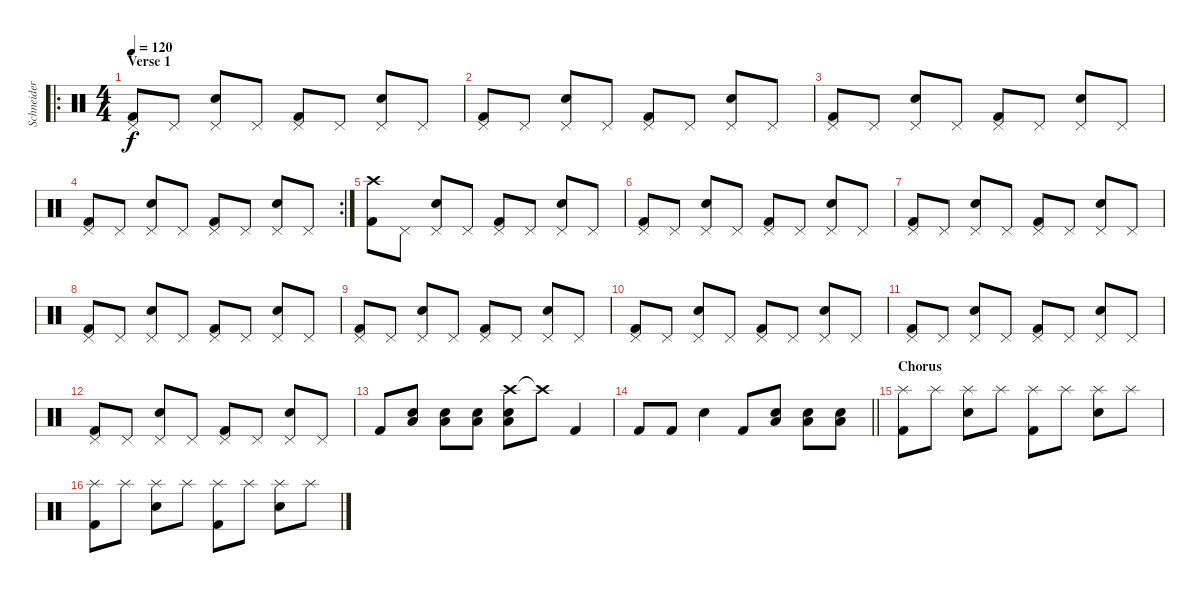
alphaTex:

\track ("Schneider" "Schneider") {instrument percussion}
\staff {score}
\articulation defaults
\ro
\ts (4 4)
\section ("" "Verse 1")
\tempo 120
\clef neutral
\ks c
("Pedal Hi-Hat (hit)" "Kick (hit) 2").8{dy f} "Pedal Hi-Hat (hit)".8 ("Pedal Hi-Hat (hit)" "Electric Snare (hit)").8 "Pedal Hi-Hat (hit)".8 ("Pedal Hi-Hat (hit)" "Kick (hit) 2").8 "Pedal Hi-Hat (hit)".8 ("Pedal Hi-Hat (hit)" "Electric Snare (hit)").8 "Pedal Hi-Hat (hit)".8 |
("Pedal Hi-Hat (hit)" "Kick (hit) 2").8 "Pedal Hi-Hat (hit)".8 ("Pedal Hi-Hat (hit)" "Electric Snare (hit)").8 "Pedal Hi-Hat (hit)".8 ("Pedal Hi-Hat (hit)" "Kick (hit) 2").8 "Pedal Hi-Hat (hit)".8 ("Pedal Hi-Hat (hit)" "Electric Snare (hit)").8 "Pedal Hi-Hat (hit)".8 |
("Pedal Hi-Hat (hit)" "Kick (hit) 2").8 "Pedal Hi-Hat (hit)".8 ("Pedal Hi-Hat (hit)" "Electric Snare (hit)").8 "Pedal Hi-Hat (hit)".8 ("Pedal Hi-Hat (hit)" "Kick (hit) 2").8 "Pedal Hi-Hat (hit)".8 ("Pedal Hi-Hat (hit)" "Electric Snare (hit)").8 "Pedal Hi-Hat (hit)".8 |
\rc 2
("Pedal Hi-Hat (hit)" "Kick (hit) 2").8 "Pedal Hi-Hat (hit)".8 ("Pedal Hi-Hat (hit)" "Electric Snare (hit)").8 "Pedal Hi-Hat (hit)".8 ("Pedal Hi-Hat (hit)" "Kick (hit) 2").8 "Pedal Hi-Hat (hit)".8 ("Pedal Hi-Hat (hit)" "Electric Snare (hit)").8 "Pedal Hi-Hat (hit)".8 |
("Crash high (hit)" "Kick (hit) 2").8 "Pedal Hi-Hat (hit)".8 ("Pedal Hi-Hat (hit)" "Electric Snare (hit)").8 "Pedal Hi-Hat (hit)".8 ("Pedal Hi-Hat (hit)" "Kick (hit) 2").8 "Pedal Hi-Hat (hit)".8 ("Pedal Hi-Hat (hit)" "Electric Snare (hit)").8 "Pedal Hi-Hat (hit)".8 |
("Pedal Hi-Hat (hit)" "Kick (hit) 2").8 "Pedal Hi-Hat (hit)".8 ("Pedal Hi-Hat (hit)" "Electric Snare (hit)").8 "Pedal Hi-Hat (hit)".8 ("Pedal Hi-Hat (hit)" "Kick (hit) 2").8 "Pedal Hi-Hat (hit)".8 ("Pedal Hi-Hat (hit)" "Electric Snare (hit)").8 "Pedal Hi-Hat (hit)".8 |
("Pedal Hi-Hat (hit)" "Kick (hit) 2").8 "Pedal Hi-Hat (hit)".8 ("Pedal Hi-Hat (hit)" "Electric Snare (hit)").8 "Pedal Hi-Hat (hit)".8 ("Pedal Hi-Hat (hit)" "Kick (hit) 2").8 "Pedal Hi-Hat (hit)".8 ("Pedal Hi-Hat (hit)" "Electric Snare (hit)").8 "Pedal Hi-Hat (hit)".8 |
("Pedal Hi-Hat (hit)" "Kick (hit) 2").8 "Pedal Hi-Hat (hit)".8 ("Pedal Hi-Hat (hit)" "Electric Snare (hit)").8 "Pedal Hi-Hat (hit)".8 ("Pedal Hi-Hat (hit)" "Kick (hit) 2").8 "Pedal Hi-Hat (hit)".8 ("Pedal Hi-Hat (hit)" "Electric Snare (hit)").8 "Pedal Hi-Hat (hit)".8 |
("Pedal Hi-Hat (hit)" "Kick (hit) 2").8 "Pedal Hi-Hat (hit)".8 ("Pedal Hi-Hat (hit)" "Electric Snare (hit)").8 "Pedal Hi-Hat (hit)".8 ("Pedal Hi-Hat (hit)" "Kick (hit) 2").8 "Pedal Hi-Hat (hit)".8 ("Pedal Hi-Hat (hit)" "Electric Snare (hit)").8 "Pedal Hi-Hat (hit)".8 |
("Pedal Hi-Hat (hit)" "Kick (hit) 2").8 "Pedal Hi-Hat (hit)".8 ("Pedal Hi-Hat (hit)" "Electric Snare (hit)").8 "Pedal Hi-Hat (hit)".8 ("Pedal Hi-Hat (hit)" "Kick (hit) 2").8 "Pedal Hi-Hat (hit)".8 ("Pedal Hi-Hat (hit)" "Electric Snare (hit)").8 "Pedal Hi-Hat (hit)".8 |
("Pedal Hi-Hat (hit)" "Kick (hit) 2").8 "Pedal Hi-Hat (hit)".8 ("Pedal Hi-Hat (hit)" "Electric Snare (hit)").8 "Pedal Hi-Hat (hit)".8 ("Pedal Hi-Hat (hit)" "Kick (hit) 2").8 "Pedal Hi-Hat (hit)".8 ("Pedal Hi-Hat (hit)" "Electric Snare (hit)").8 "Pedal Hi-Hat (hit)".8 |
("Pedal Hi-Hat (hit)" "Kick (hit) 2").8 "Pedal Hi-Hat (hit)".8 ("Pedal Hi-Hat (hit)" "Electric Snare (hit)").8 "Pedal Hi-Hat (hit)".8 ("Pedal Hi-Hat (hit)" "Kick (hit) 2").8 "Pedal Hi-Hat (hit)".8 ("Pedal Hi-Hat (hit)" "Electric Snare (hit)").8 "Pedal Hi-Hat (hit)".8 |
"Kick (hit) 2".8 ("Low Floor Tom (hit)" "Electric Snare (hit)").8 ("Low Floor Tom (hit)" "Electric Snare (hit)").8 ("Low Floor Tom (hit)" "Electric Snare (hit)").8 ("Crash high (hit)" "Low Floor Tom (hit)" "Electric Snare (hit)").8 "Crash high (hit)"{t}.8 "Kick (hit) 2".4 |
\barLineRight lightlight "Kick (hit) 2".8 "Kick (hit) 2".8 "Electric Snare (hit)".4 "Kick (hit) 2".8
("Electric Snare (hit)" "Low Tom (hit)").8 ("Electric Snare (hit)" "Low Tom (hit)").8 ("Electric Snare (hit)" "Low Tom (hit)").8 |
\section ("" "Chorus")
("Splash (hit)" "Kick (hit) 2").8 "Splash (hit)".8 ("Splash (hit)" "Electric Snare (hit)").8 "Splash (hit)".8 ("Splash (hit)" "Kick (hit) 2").8 "Splash (hit)".8 ("Splash (hit)" "Electric Snare (hit)").8 "Splash (hit)".8 |
("Splash (hit)" "Kick (hit) 2").8 "Splash (hit)".8 ("Splash (hit)" "Electric Snare (hit)").8 "Splash (hit)".8 ("Splash (hit)" "Kick (hit) 2").8 "Splash (hit)".8 ("Splash (hit)" "Electric Snare (hit)").8 "Splash (hit)".8
